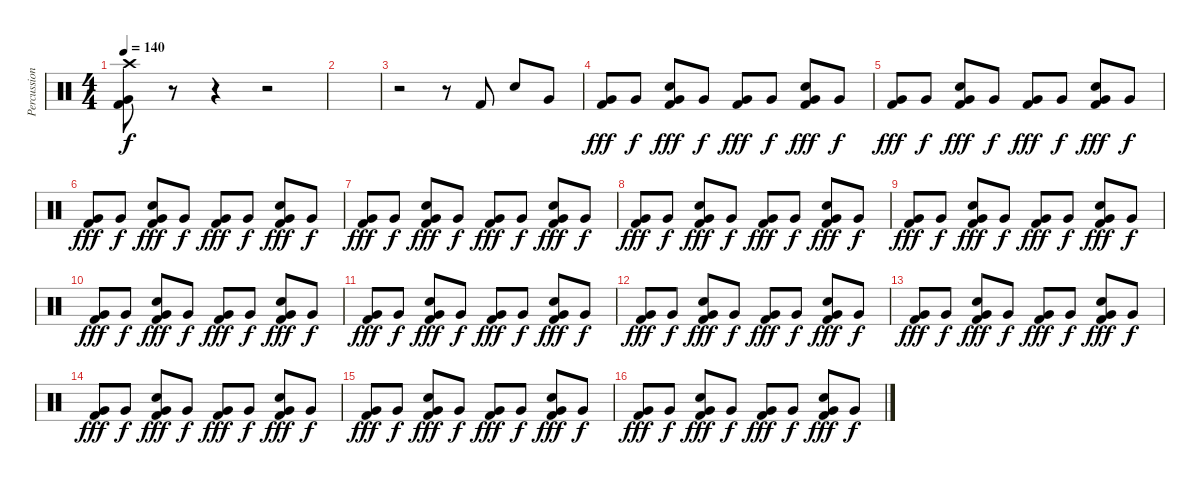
\track ("Percussion" "Percussion") {instrument percussion}
\staff {score}
\articulation defaults
\ts (4 4)
\tempo 140
\clef neutral
\ks c
("Crash high (hit)" "Very Low Tom (hit)" "Kick (hit) 2").8{dy f} r.8 r.4 r.2 |
|
r.2 r.8 "Kick (hit) 2".8 "Electric Snare (hit)".8 "Very Low Tom (hit)".8 |
("Very Low Tom (hit)" "Kick (hit) 2").8{dy fff} "Very Low Tom (hit)".8{dy f} ("Very Low Tom (hit)" "Snare (hit) 2" "Kick (hit) 2").8{dy fff} "Very Low Tom (hit)".8{dy f} ("Very Low Tom (hit)" "Kick (hit) 2").8{dy fff} "Very Low Tom (hit)".8{dy f} ("Very Low Tom (hit)" "Snare (hit) 2" "Kick (hit) 2").8{dy fff} "Very Low Tom (hit)".8{dy f} |
("Very Low Tom (hit)" "Kick (hit) 2").8{dy fff} "Very Low Tom (hit)".8{dy f} ("Very Low Tom (hit)" "Snare (hit) 2" "Kick (hit) 2").8{dy fff} "Very Low Tom (hit)".8{dy f} ("Very Low Tom (hit)" "Kick (hit) 2").8{dy fff} "Very Low Tom (hit)".8{dy f} ("Very Low Tom (hit)" "Snare (hit) 2" "Kick (hit) 2").8{dy fff} "Very Low Tom (hit)".8{dy f} |
("Very Low Tom (hit)" "Kick (hit) 2").8{dy fff} "Very Low Tom (hit)".8{dy f} ("Very Low Tom (hit)" "Snare (hit) 2" "Kick (hit) 2").8{dy fff} "Very Low Tom (hit)".8{dy f} ("Very Low Tom (hit)" "Kick (hit) 2").8{dy fff} "Very Low Tom (hit)".8{dy f} ("Very Low Tom (hit)" "Snare (hit) 2" "Kick (hit) 2").8{dy fff} "Very Low Tom (hit)".8{dy f} |
("Very Low Tom (hit)" "Kick (hit) 2").8{dy fff} "Very Low Tom (hit)".8{dy f} ("Very Low Tom (hit)" "Snare (hit) 2" "Kick (hit) 2").8{dy fff} "Very Low Tom (hit)".8{dy f} ("Very Low Tom (hit)" "Kick (hit) 2").8{dy fff} "Very Low Tom (hit)".8{dy f} ("Very Low Tom (hit)" "Snare (hit) 2" "Kick (hit) 2").8{dy fff} "Very Low Tom (hit)".8{dy f} |
("Very Low Tom (hit)" "Kick (hit) 2").8{dy fff} "Very Low Tom (hit)".8{dy f} ("Very Low Tom (hit)" "Snare (hit) 2" "Kick (hit) 2").8{dy fff} "Very Low Tom (hit)".8{dy f} ("Very Low Tom (hit)" "Kick (hit) 2").8{dy fff} "Very Low Tom (hit)".8{dy f} ("Very Low Tom (hit)" "Snare (hit) 2" "Kick (hit) 2").8{dy fff} "Very Low Tom (hit)".8{dy f} |
("Very Low Tom (hit)" "Kick (hit) 2").8{dy fff} "Very Low Tom (hit)".8{dy f} ("Very Low Tom (hit)" "Snare (hit) 2" "Kick (hit) 2").8{dy fff} "Very Low Tom (hit)".8{dy f} ("Very Low Tom (hit)" "Kick (hit) 2").8{dy fff} "Very Low Tom (hit)".8{dy f} ("Very Low Tom (hit)" "Snare (hit) 2" "Kick (hit) 2").8{dy fff} "Very Low Tom (hit)".8{dy f} |
("Very Low Tom (hit)" "Kick (hit) 2").8{dy fff} "Very Low Tom (hit)".8{dy f} ("Very Low Tom (hit)" "Snare (hit) 2" "Kick (hit) 2").8{dy fff} "Very Low Tom (hit)".8{dy f} ("Very Low Tom (hit)" "Kick (hit) 2").8{dy fff} "Very Low Tom (hit)".8{dy f} ("Very Low Tom (hit)" "Snare (hit) 2" "Kick (hit) 2").8{dy fff} "Very Low Tom (hit)".8{dy f} |
("Very Low Tom (hit)" "Kick (hit) 2").8{dy fff} "Very Low Tom (hit)".8{dy f} ("Very Low Tom (hit)" "Snare (hit) 2" "Kick (hit) 2").8{dy fff} "Very Low Tom (hit)".8{dy f} ("Very Low Tom (hit)" "Kick (hit) 2").8{dy fff} "Very Low Tom (hit)".8{dy f} ("Very Low Tom (hit)" "Snare (hit) 2" "Kick (hit) 2").8{dy fff} "Very Low Tom (hit)".8{dy f} |
("Very Low Tom (hit)" "Kick (hit) 2").8{dy fff} "Very Low Tom (hit)".8{dy f} ("Very Low Tom (hit)" "Snare (hit) 2" "Kick (hit) 2").8{dy fff} "Very Low Tom (hit)".8{dy f} ("Very Low Tom (hit)" "Kick (hit) 2").8{dy fff} "Very Low Tom (hit)".8{dy f} ("Very Low Tom (hit)" "Snare (hit) 2" "Kick (hit) 2").8{dy fff} "Very Low Tom (hit)".8{dy f} |
("Very Low Tom (hit)" "Kick (hit) 2").8{dy fff} "Very Low Tom (hit)".8{dy f} ("Very Low Tom (hit)" "Snare (hit) 2" "Kick (hit) 2").8{dy fff} "Very Low Tom (hit)".8{dy f} ("Very Low Tom (hit)" "Kick (hit) 2").8{dy fff} "Very Low Tom (hit)".8{dy f} ("Very Low Tom (hit)" "Snare (hit) 2" "Kick (hit) 2").8{dy fff} "Very Low Tom (hit)".8{dy f} |
("Very Low Tom (hit)" "Kick (hit) 2").8{dy fff} "Very Low Tom (hit)".8{dy f} ("Very Low Tom (hit)" "Snare (hit) 2" "Kick (hit) 2").8{dy fff} "Very Low Tom (hit)".8{dy f} ("Very Low Tom (hit)" "Kick (hit) 2").8{dy fff} "Very Low Tom (hit)".8{dy f} ("Very Low Tom (hit)" "Snare (hit) 2" "Kick (hit) 2").8{dy fff} "Very Low Tom (hit)".8{dy f} |
("Very Low Tom (hit)" "Kick (hit) 2").8{dy fff} "Very Low Tom (hit)".8{dy f} ("Very Low Tom (hit)" "Snare (hit) 2" "Kick (hit) 2").8{dy fff} "Very Low Tom (hit)".8{dy f} ("Very Low Tom (hit)" "Kick (hit) 2").8{dy fff} "Very Low Tom (hit)".8{dy f} ("Very Low Tom (hit)" "Snare (hit) 2" "Kick (hit) 2").8{dy fff} "Very Low Tom (hit)".8{dy f} |
("Very Low Tom (hit)" "Kick (hit) 2").8{dy fff} "Very Low Tom (hit)".8{dy f} ("Very Low Tom (hit)" "Snare (hit) 2" "Kick (hit) 2").8{dy fff} "Very Low Tom (hit)".8{dy f} ("Very Low Tom (hit)" "Kick (hit) 2").8{dy fff} "Very Low Tom (hit)".8{dy f} ("Very Low Tom (hit)" "Snare (hit) 2" "Kick (hit) 2").8{dy fff} "Very Low Tom (hit)".8{dy f}
